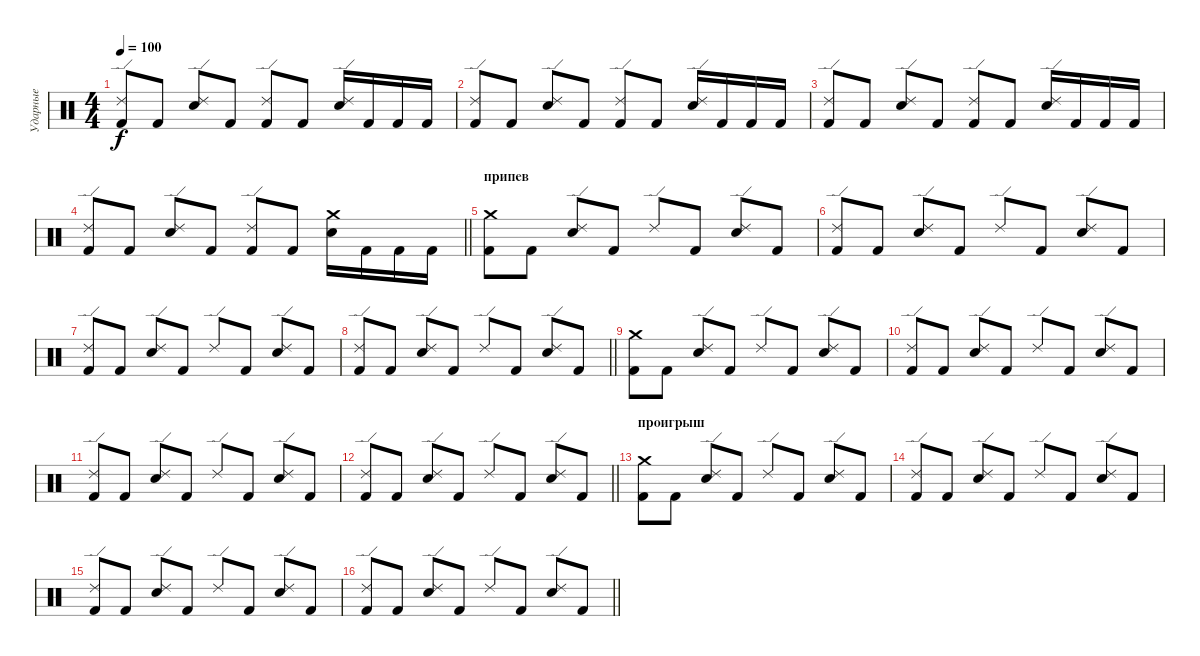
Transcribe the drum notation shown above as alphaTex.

\track ("Ударные" "Ударные") {instrument percussion}
\staff {score}
\articulation defaults
\ts (4 4)
\tempo 100
\clef neutral
\ks c
("Kick (hit) 2" "Ride (edge) 2").8{dy f} "Kick (hit) 2".8 ("Electric Snare (hit)" "Ride (edge) 2").8 "Kick (hit) 2".8 ("Kick (hit) 2" "Ride (edge) 2").8 "Kick (hit) 2".8 ("Electric Snare (hit)" "Ride (edge) 2").16 "Kick (hit) 2".16 "Kick (hit) 2".16 "Kick (hit) 2".16 |
("Kick (hit) 2" "Ride (edge) 2").8 "Kick (hit) 2".8 ("Electric Snare (hit)" "Ride (edge) 2").8 "Kick (hit) 2".8 ("Kick (hit) 2" "Ride (edge) 2").8 "Kick (hit) 2".8 ("Electric Snare (hit)" "Ride (edge) 2").16 "Kick (hit) 2".16 "Kick (hit) 2".16 "Kick (hit) 2".16 |
("Kick (hit) 2" "Ride (edge) 2").8 "Kick (hit) 2".8 ("Electric Snare (hit)" "Ride (edge) 2").8 "Kick (hit) 2".8 ("Kick (hit) 2" "Ride (edge) 2").8 "Kick (hit) 2".8 ("Electric Snare (hit)" "Ride (edge) 2").16 "Kick (hit) 2".16 "Kick (hit) 2".16 "Kick (hit) 2".16 |
\barLineRight lightlight
("Kick (hit) 2" "Ride (edge) 2").8 "Kick (hit) 2".8 ("Electric Snare (hit)" "Ride (edge) 2").8 "Kick (hit) 2".8 ("Kick (hit) 2" "Ride (edge) 2").8 "Kick (hit) 2".8 ("Electric Snare (hit)" "Crash medium (hit)").16 "Kick (hit) 2".16 "Kick (hit) 2".16 "Kick (hit) 2".16 |
\section ("" "припев")
("Kick (hit) 2" "Crash medium (hit)").8 "Kick (hit) 2".8 ("Electric Snare (hit)" "Ride (edge) 2").8 "Kick (hit) 2".8 "Ride (edge) 2".8 "Kick (hit) 2".8 ("Electric Snare (hit)" "Ride (edge) 2").8 "Kick (hit) 2".8 |
("Kick (hit) 2" "Ride (edge) 2").8 "Kick (hit) 2".8 ("Electric Snare (hit)" "Ride (edge) 2").8 "Kick (hit) 2".8 "Ride (edge) 2".8 "Kick (hit) 2".8 ("Electric Snare (hit)" "Ride (edge) 2").8 "Kick (hit) 2".8 |
("Kick (hit) 2" "Ride (edge) 2").8 "Kick (hit) 2".8 ("Electric Snare (hit)" "Ride (edge) 2").8 "Kick (hit) 2".8 "Ride (edge) 2".8 "Kick (hit) 2".8 ("Electric Snare (hit)" "Ride (edge) 2").8 "Kick (hit) 2".8 |
\barLineRight lightlight
("Kick (hit) 2" "Ride (edge) 2").8 "Kick (hit) 2".8 ("Electric Snare (hit)" "Ride (edge) 2").8 "Kick (hit) 2".8 "Ride (edge) 2".8 "Kick (hit) 2".8 ("Electric Snare (hit)" "Ride (edge) 2").8 "Kick (hit) 2".8 |
("Kick (hit) 2" "Crash medium (hit)").8 "Kick (hit) 2".8 ("Electric Snare (hit)" "Ride (edge) 2").8 "Kick (hit) 2".8 "Ride (edge) 2".8 "Kick (hit) 2".8 ("Electric Snare (hit)" "Ride (edge) 2").8 "Kick (hit) 2".8 |
("Kick (hit) 2" "Ride (edge) 2").8 "Kick (hit) 2".8 ("Electric Snare (hit)" "Ride (edge) 2").8 "Kick (hit) 2".8 "Ride (edge) 2".8 "Kick (hit) 2".8 ("Electric Snare (hit)" "Ride (edge) 2").8 "Kick (hit) 2".8 |
("Kick (hit) 2" "Ride (edge) 2").8 "Kick (hit) 2".8 ("Electric Snare (hit)" "Ride (edge) 2").8 "Kick (hit) 2".8 "Ride (edge) 2".8 "Kick (hit) 2".8 ("Electric Snare (hit)" "Ride (edge) 2").8 "Kick (hit) 2".8 |
\barLineRight lightlight
("Kick (hit) 2" "Ride (edge) 2").8 "Kick (hit) 2".8 ("Electric Snare (hit)" "Ride (edge) 2").8 "Kick (hit) 2".8 "Ride (edge) 2".8 "Kick (hit) 2".8 ("Electric Snare (hit)" "Ride (edge) 2").8 "Kick (hit) 2".8 |
\section ("" "проигрыш")
("Kick (hit) 2" "Crash medium (hit)").8 "Kick (hit) 2".8 ("Electric Snare (hit)" "Ride (edge) 2").8 "Kick (hit) 2".8 "Ride (edge) 2".8 "Kick (hit) 2".8 ("Electric Snare (hit)" "Ride (edge) 2").8 "Kick (hit) 2".8 |
("Kick (hit) 2" "Ride (edge) 2").8 "Kick (hit) 2".8 ("Electric Snare (hit)" "Ride (edge) 2").8 "Kick (hit) 2".8 "Ride (edge) 2".8 "Kick (hit) 2".8 ("Electric Snare (hit)" "Ride (edge) 2").8 "Kick (hit) 2".8 |
("Kick (hit) 2" "Ride (edge) 2").8 "Kick (hit) 2".8 ("Electric Snare (hit)" "Ride (edge) 2").8 "Kick (hit) 2".8 "Ride (edge) 2".8 "Kick (hit) 2".8 ("Electric Snare (hit)" "Ride (edge) 2").8 "Kick (hit) 2".8 |
\barLineRight lightlight
("Kick (hit) 2" "Ride (edge) 2").8 "Kick (hit) 2".8 ("Electric Snare (hit)" "Ride (edge) 2").8 "Kick (hit) 2".8 "Ride (edge) 2".8 "Kick (hit) 2".8 ("Electric Snare (hit)" "Ride (edge) 2").8 "Kick (hit) 2".8
